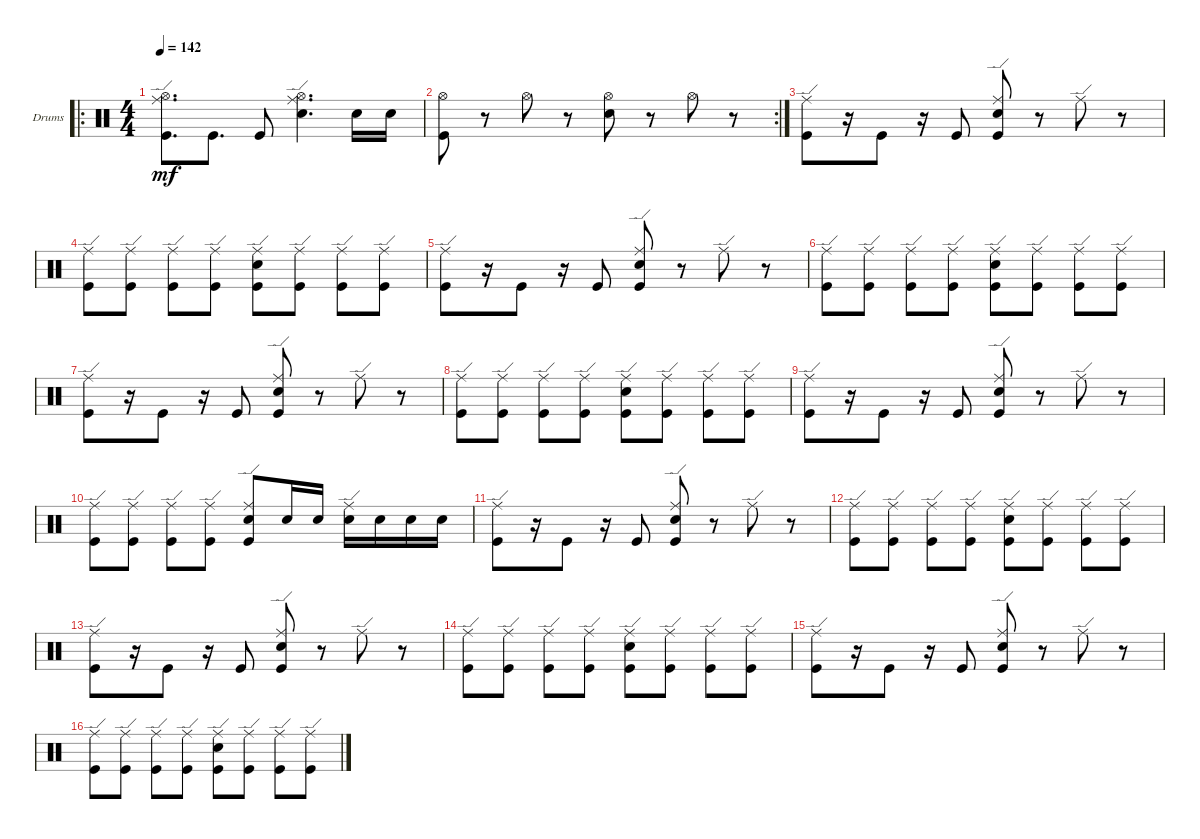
\bracketExtendMode groupsimilarinstruments
\firstSystemTrackNameOrientation horizontal
\otherSystemsTrackNameOrientation horizontal
\track ("Drumkit" "Drums") {instrument percussion}
\staff {score}
\articulation defaults
\ro
\ts (4 4)
\tempo 142
\clef neutral
\ks c
("Kick (hit)" "Hi-Hat (open)" "Ride (edge)").8{d dy mf} "Kick (hit)".8{d} "Kick (hit)".8 ("Snare (hit) 2" "Hi-Hat (open)" "Ride (edge)").4{d} "Snare (hit) 2".16 "Snare (hit) 2".16 |
\rc 2
("Kick (hit)" "Hi-Hat (open)").8 r.8 "Hi-Hat (open)".8 r.8 ("Snare (hit) 2" "Hi-Hat (open)").8 r.8 "Hi-Hat (open)".8 r.8 |
("Kick (hit)" "Ride (edge)").8 r.16 "Kick (hit)".8 r.16 "Kick (hit)".8 ("Kick (hit)" "Snare (hit) 2" "Ride (edge)").8 r.8 "Ride (edge)".8 r.8 |
("Kick (hit)" "Ride (edge)").8 ("Kick (hit)" "Ride (edge)").8 ("Kick (hit)" "Ride (edge)").8 ("Kick (hit)" "Ride (edge)").8 ("Kick (hit)" "Ride (edge)" "Snare (hit) 2").8 ("Kick (hit)" "Ride (edge)").8 ("Kick (hit)" "Ride (edge)").8 ("Kick (hit)" "Ride (edge)").8 |
("Kick (hit)" "Ride (edge)").8 r.16 "Kick (hit)".8 r.16 "Kick (hit)".8 ("Kick (hit)" "Snare (hit) 2" "Ride (edge)").8 r.8 "Ride (edge)".8 r.8 |
("Kick (hit)" "Ride (edge)").8 ("Kick (hit)" "Ride (edge)").8 ("Kick (hit)" "Ride (edge)").8 ("Kick (hit)" "Ride (edge)").8 ("Kick (hit)" "Ride (edge)" "Snare (hit) 2").8 ("Kick (hit)" "Ride (edge)").8 ("Kick (hit)" "Ride (edge)").8 ("Kick (hit)" "Ride (edge)").8 |
("Kick (hit)" "Ride (edge)").8 r.16 "Kick (hit)".8 r.16 "Kick (hit)".8 ("Kick (hit)" "Snare (hit) 2" "Ride (edge)").8 r.8 "Ride (edge)".8 r.8 |
("Kick (hit)" "Ride (edge)").8 ("Kick (hit)" "Ride (edge)").8 ("Kick (hit)" "Ride (edge)").8 ("Kick (hit)" "Ride (edge)").8 ("Kick (hit)" "Ride (edge)" "Snare (hit) 2").8 ("Kick (hit)" "Ride (edge)").8 ("Kick (hit)" "Ride (edge)").8 ("Kick (hit)" "Ride (edge)").8 |
("Kick (hit)" "Ride (edge)").8 r.16 "Kick (hit)".8 r.16 "Kick (hit)".8 ("Kick (hit)" "Snare (hit) 2" "Ride (edge)").8 r.8 "Ride (edge)".8 r.8 |
("Kick (hit)" "Ride (edge)").8 ("Kick (hit)" "Ride (edge)").8 ("Kick (hit)" "Ride (edge)").8 ("Kick (hit)" "Ride (edge)").8 ("Kick (hit)" "Ride (edge)" "Snare (hit) 2").8 "Snare (hit) 2".16 "Snare (hit) 2".16 ("Snare (hit) 2" "Ride (edge)").16 "Snare (hit) 2".16 "Snare (hit) 2".16 "Snare (hit) 2".16 |
("Kick (hit)" "Ride (edge)").8 r.16 "Kick (hit)".8 r.16 "Kick (hit)".8 ("Kick (hit)" "Snare (hit) 2" "Ride (edge)").8 r.8 "Ride (edge)".8 r.8 |
("Kick (hit)" "Ride (edge)").8 ("Kick (hit)" "Ride (edge)").8 ("Kick (hit)" "Ride (edge)").8 ("Kick (hit)" "Ride (edge)").8 ("Kick (hit)" "Ride (edge)" "Snare (hit) 2").8 ("Kick (hit)" "Ride (edge)").8 ("Kick (hit)" "Ride (edge)").8 ("Kick (hit)" "Ride (edge)").8 |
("Kick (hit)" "Ride (edge)").8 r.16 "Kick (hit)".8 r.16 "Kick (hit)".8 ("Kick (hit)" "Snare (hit) 2" "Ride (edge)").8 r.8 "Ride (edge)".8 r.8 |
("Kick (hit)" "Ride (edge)").8 ("Kick (hit)" "Ride (edge)").8 ("Kick (hit)" "Ride (edge)").8 ("Kick (hit)" "Ride (edge)").8 ("Kick (hit)" "Ride (edge)" "Snare (hit) 2").8 ("Kick (hit)" "Ride (edge)").8 ("Kick (hit)" "Ride (edge)").8 ("Kick (hit)" "Ride (edge)").8 |
("Kick (hit)" "Ride (edge)").8 r.16 "Kick (hit)".8 r.16 "Kick (hit)".8 ("Kick (hit)" "Snare (hit) 2" "Ride (edge)").8 r.8 "Ride (edge)".8 r.8 |
("Kick (hit)" "Ride (edge)").8 ("Kick (hit)" "Ride (edge)").8 ("Kick (hit)" "Ride (edge)").8 ("Kick (hit)" "Ride (edge)").8 ("Kick (hit)" "Ride (edge)" "Snare (hit) 2").8 ("Kick (hit)" "Ride (edge)").8 ("Kick (hit)" "Ride (edge)").8 ("Kick (hit)" "Ride (edge)").8
